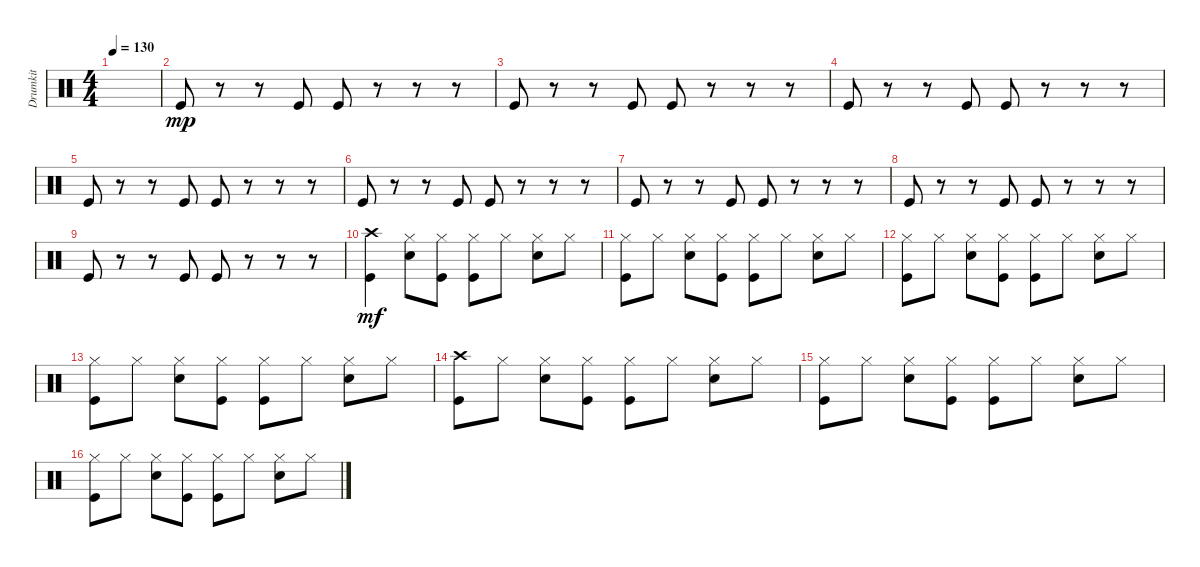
\track ("Drumkit" "Drumkit") {instrument percussion}
\staff {score}
\articulation defaults
\ts (4 4)
\tempo 130
\clef neutral
\ks c
|
"Kick (hit)".8{dy mp} r.8 r.8 "Kick (hit)".8 "Kick (hit)".8 r.8 r.8 r.8 |
"Kick (hit)".8 r.8 r.8 "Kick (hit)".8 "Kick (hit)".8 r.8 r.8 r.8 |
"Kick (hit)".8 r.8 r.8 "Kick (hit)".8 "Kick (hit)".8 r.8 r.8 r.8 |
"Kick (hit)".8 r.8 r.8 "Kick (hit)".8 "Kick (hit)".8 r.8 r.8 r.8 |
"Kick (hit)".8 r.8 r.8 "Kick (hit)".8 "Kick (hit)".8 r.8 r.8 r.8 |
"Kick (hit)".8 r.8 r.8 "Kick (hit)".8 "Kick (hit)".8 r.8 r.8 r.8 |
"Kick (hit)".8 r.8 r.8 "Kick (hit)".8 "Kick (hit)".8 r.8 r.8 r.8 |
"Kick (hit)".8 r.8 r.8 "Kick (hit)".8 "Kick (hit)".8 r.8 r.8 r.8 |
("Crash high (hit)" "Kick (hit)").4{dy mf} ("Snare (hit) 2" "Hi-Hat (closed)").8 ("Kick (hit)" "Hi-Hat (closed)").8 ("Kick (hit)" "Hi-Hat (closed)").8 "Hi-Hat (closed)".8 ("Snare (hit) 2" "Hi-Hat (closed)").8 "Hi-Hat (closed)".8 |
("Kick (hit)" "Hi-Hat (closed)").8 "Hi-Hat (closed)".8 ("Snare (hit) 2" "Hi-Hat (closed)").8 ("Kick (hit)" "Hi-Hat (closed)").8 ("Kick (hit)" "Hi-Hat (closed)").8 "Hi-Hat (closed)".8 ("Snare (hit) 2" "Hi-Hat (closed)").8 "Hi-Hat (closed)".8 |
("Kick (hit)" "Hi-Hat (closed)").8 "Hi-Hat (closed)".8 ("Snare (hit) 2" "Hi-Hat (closed)").8 ("Kick (hit)" "Hi-Hat (closed)").8 ("Kick (hit)" "Hi-Hat (closed)").8 "Hi-Hat (closed)".8 ("Snare (hit) 2" "Hi-Hat (closed)").8 "Hi-Hat (closed)".8 |
("Kick (hit)" "Hi-Hat (closed)").8 "Hi-Hat (closed)".8 ("Snare (hit) 2" "Hi-Hat (closed)").8 ("Kick (hit)" "Hi-Hat (closed)").8 ("Kick (hit)" "Hi-Hat (closed)").8 "Hi-Hat (closed)".8 ("Snare (hit) 2" "Hi-Hat (closed)").8 "Hi-Hat (closed)".8 |
("Kick (hit)" "Crash high (hit)").8 "Hi-Hat (closed)".8 ("Snare (hit) 2" "Hi-Hat (closed)").8 ("Kick (hit)" "Hi-Hat (closed)").8 ("Kick (hit)" "Hi-Hat (closed)").8 "Hi-Hat (closed)".8 ("Snare (hit) 2" "Hi-Hat (closed)").8 "Hi-Hat (closed)".8 |
("Kick (hit)" "Hi-Hat (closed)").8 "Hi-Hat (closed)".8 ("Snare (hit) 2" "Hi-Hat (closed)").8 ("Kick (hit)" "Hi-Hat (closed)").8 ("Kick (hit)" "Hi-Hat (closed)").8 "Hi-Hat (closed)".8 ("Snare (hit) 2" "Hi-Hat (closed)").8 "Hi-Hat (closed)".8 |
("Kick (hit)" "Hi-Hat (closed)").8 "Hi-Hat (closed)".8 ("Snare (hit) 2" "Hi-Hat (closed)").8 ("Kick (hit)" "Hi-Hat (closed)").8 ("Kick (hit)" "Hi-Hat (closed)").8 "Hi-Hat (closed)".8 ("Snare (hit) 2" "Hi-Hat (closed)").8 "Hi-Hat (closed)".8
